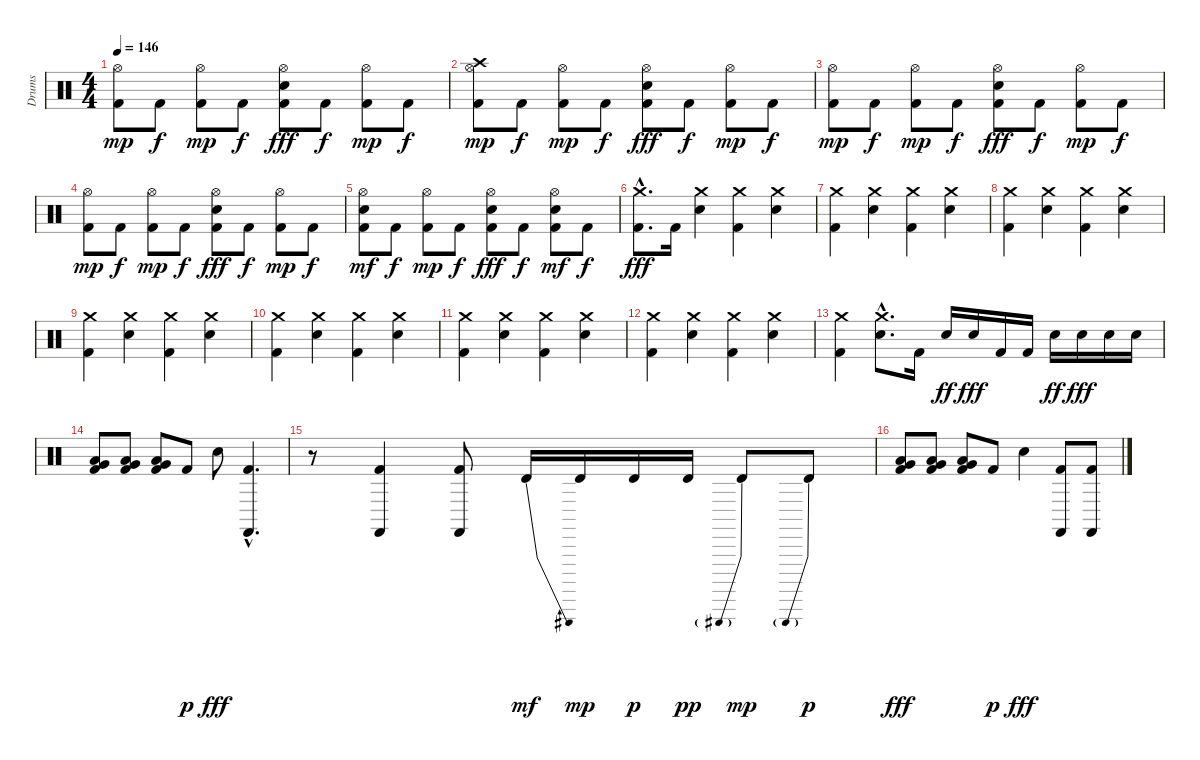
\track ("Drums" "Drums") {instrument percussion}
\staff {score}
\articulation defaults
\ts (4 4)
\tempo 146
\clef neutral
\ks c
("Hi-Hat (open)" "Kick (hit) 2").8{dy mp} "Kick (hit) 2".8{dy f} ("Hi-Hat (open)" "Kick (hit) 2").8{dy mp} "Kick (hit) 2".8{dy f} ("Hi-Hat (open)" "Snare (hit) 2" "Kick (hit) 2").8{dy fff} "Kick (hit) 2".8{dy f} ("Hi-Hat (open)" "Kick (hit) 2").8{dy mp} "Kick (hit) 2".8{dy f} |
("Crash high (hit)" "Hi-Hat (open)" "Kick (hit) 2").8{dy mp} "Kick (hit) 2".8{dy f} ("Hi-Hat (open)" "Kick (hit) 2").8{dy mp} "Kick (hit) 2".8{dy f} ("Hi-Hat (open)" "Snare (hit) 2" "Kick (hit) 2").8{dy fff} "Kick (hit) 2".8{dy f} ("Hi-Hat (open)" "Kick (hit) 2").8{dy mp} "Kick (hit) 2".8{dy f} |
("Hi-Hat (open)" "Kick (hit) 2").8{dy mp} "Kick (hit) 2".8{dy f} ("Hi-Hat (open)" "Kick (hit) 2").8{dy mp} "Kick (hit) 2".8{dy f} ("Hi-Hat (open)" "Snare (hit) 2" "Kick (hit) 2").8{dy fff} "Kick (hit) 2".8{dy f} ("Hi-Hat (open)" "Kick (hit) 2").8{dy mp} "Kick (hit) 2".8{dy f} |
("Hi-Hat (open)" "Kick (hit) 2").8{dy mp} "Kick (hit) 2".8{dy f} ("Hi-Hat (open)" "Kick (hit) 2").8{dy mp} "Kick (hit) 2".8{dy f} ("Hi-Hat (open)" "Snare (hit) 2" "Kick (hit) 2").8{dy fff} "Kick (hit) 2".8{dy f} ("Hi-Hat (open)" "Kick (hit) 2").8{dy mp} "Kick (hit) 2".8{dy f} |
("Hi-Hat (open)" "Snare (hit) 2" "Kick (hit) 2").8{dy mf} "Kick (hit) 2".8{dy f} ("Hi-Hat (open)" "Kick (hit) 2").8{dy mp} "Kick (hit) 2".8{dy f} ("Hi-Hat (open)" "Snare (hit) 2" "Kick (hit) 2").8{dy fff} "Kick (hit) 2".8{dy f} ("Hi-Hat (open)" "Snare (hit) 2" "Kick (hit) 2").8{dy mf} "Kick (hit) 2".8{dy f} |
("Crash medium (hit)"{hac} "Kick (hit) 2"{hac}).8{d dy fff} "Kick (hit) 2".16 ("Crash medium (hit)" "Snare (hit) 2").4 ("Crash medium (hit)" "Kick (hit) 2").4 ("Crash medium (hit)" "Snare (hit) 2").4 |
("Crash medium (hit)" "Kick (hit) 2").4 ("Crash medium (hit)" "Snare (hit) 2").4 ("Crash medium (hit)" "Kick (hit) 2").4 ("Crash medium (hit)" "Snare (hit) 2").4 |
("Crash medium (hit)" "Kick (hit) 2").4 ("Crash medium (hit)" "Snare (hit) 2").4 ("Crash medium (hit)" "Kick (hit) 2").4 ("Crash medium (hit)" "Snare (hit) 2").4 |
("Crash medium (hit)" "Kick (hit) 2").4 ("Crash medium (hit)" "Snare (hit) 2").4 ("Crash medium (hit)" "Kick (hit) 2").4 ("Crash medium (hit)" "Snare (hit) 2").4 |
("Crash medium (hit)" "Kick (hit) 2").4 ("Crash medium (hit)" "Snare (hit) 2").4 ("Crash medium (hit)" "Kick (hit) 2").4 ("Crash medium (hit)" "Snare (hit) 2").4 |
("Crash medium (hit)" "Kick (hit) 2").4 ("Crash medium (hit)" "Snare (hit) 2").4 ("Crash medium (hit)" "Kick (hit) 2").4 ("Crash medium (hit)" "Snare (hit) 2").4 |
("Crash medium (hit)" "Kick (hit) 2").4 ("Crash medium (hit)" "Snare (hit) 2").4 ("Crash medium (hit)" "Kick (hit) 2").4 ("Crash medium (hit)" "Snare (hit) 2").4 |
("Crash medium (hit)" "Kick (hit) 2").4 ("Crash medium (hit)"{hac} "Snare (hit) 2"{hac}).8{d} "Kick (hit) 2".16 "Snare (hit) 2".16{dy ff} "Snare (hit) 2".16{dy fff} "Kick (hit) 2".16 "Kick (hit) 2".16 "Snare (hit) 2".16{dy ff} "Snare (hit) 2".16{dy fff} "Snare (hit) 2".16 "Snare (hit) 2".16 |
("Very Low Tom (hit)" "Low Floor Tom (hit)" "Kick (hit) 2").8 ("Very Low Tom (hit)" "Low Floor Tom (hit)" "Kick (hit) 2").8 ("Very Low Tom (hit)" "Low Floor Tom (hit)" "Kick (hit) 2").8 "Kick (hit) 2".8{dy p} "Snare (hit) 2".8{dy fff} ("Castanets (hit)"{hac} "Kick (hit) 2"{hac}).4{d} |
r.8 ("Castanets (hit)" "Kick (hit) 2").4 ("Castanets (hit)" "Kick (hit) 2").8 "Timbale high (hit)"{be (bend 0 0 60 1)}.16{dy mf} "Timbale high (hit)".16{dy mp} "Timbale high (hit)".16{dy p} "Timbale high (hit)".16{dy pp} "Timbale high (hit)"{be (prebend 0 1 60 1)}.8{dy mp} "Timbale high (hit)"{be (prebend 0 2 60 2)}.8{dy p} |
("Very Low Tom (hit)" "Low Floor Tom (hit)" "Kick (hit) 2").8{dy fff} ("Very Low Tom (hit)" "Low Floor Tom (hit)" "Kick (hit) 2").8 ("Very Low Tom (hit)" "Low Floor Tom (hit)" "Kick (hit) 2").8 "Kick (hit) 2".8{dy p} "Snare (hit) 2".4{dy fff} ("Castanets (hit)" "Kick (hit) 2").8 ("Castanets (hit)" "Kick (hit) 2").8
